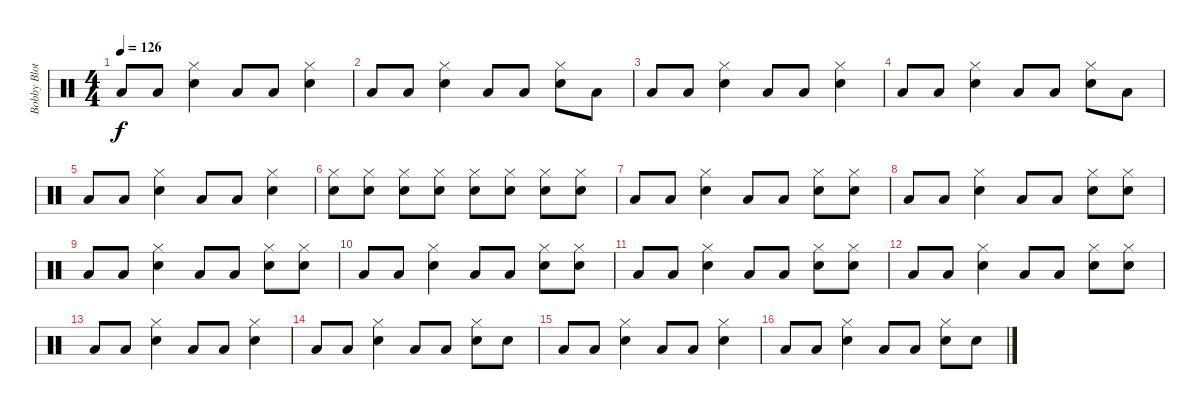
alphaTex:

\track ("Bobby Blotzer" "Bobby Blot") {instrument percussion}
\staff {score}
\articulation defaults
\ts (4 4)
\tempo 126
\clef neutral
\ks c "Low Floor Tom (hit)".8{dy f volume 13} "Low Floor Tom (hit)".8
("Hi-Hat (closed)" "Snare (hit) 2").4 "Low Floor Tom (hit)".8 "Low Floor Tom (hit)".8 ("Hi-Hat (closed)" "Snare (hit) 2").4 |
"Low Floor Tom (hit)".8 "Low Floor Tom (hit)".8 ("Hi-Hat (closed)" "Snare (hit) 2").4 "Low Floor Tom (hit)".8 "Low Floor Tom (hit)".8 ("Hi-Hat (closed)" "Snare (hit) 2").8 "Low Floor Tom (hit)".8 |
"Low Floor Tom (hit)".8{volume 13} "Low Floor Tom (hit)".8 ("Hi-Hat (closed)" "Snare (hit) 2").4 "Low Floor Tom (hit)".8 "Low Floor Tom (hit)".8 ("Hi-Hat (closed)" "Snare (hit) 2").4 |
"Low Floor Tom (hit)".8 "Low Floor Tom (hit)".8 ("Hi-Hat (closed)" "Snare (hit) 2").4 "Low Floor Tom (hit)".8 "Low Floor Tom (hit)".8 ("Hi-Hat (closed)" "Snare (hit) 2").8 "Low Floor Tom (hit)".8 |
"Low Floor Tom (hit)".8{volume 13} "Low Floor Tom (hit)".8 ("Hi-Hat (closed)" "Snare (hit) 2").4 "Low Floor Tom (hit)".8 "Low Floor Tom (hit)".8 ("Hi-Hat (closed)" "Snare (hit) 2").4 |
("Hi-Hat (closed)" "Snare (hit) 2").8 ("Hi-Hat (closed)" "Snare (hit) 2").8 ("Hi-Hat (closed)" "Snare (hit) 2").8 ("Hi-Hat (closed)" "Snare (hit) 2").8 ("Hi-Hat (closed)" "Snare (hit) 2").8 ("Hi-Hat (closed)" "Snare (hit) 2").8 ("Hi-Hat (closed)" "Snare (hit) 2").8 ("Hi-Hat (closed)" "Snare (hit) 2").8 |
"Low Floor Tom (hit)".8 "Low Floor Tom (hit)".8 ("Hi-Hat (closed)" "Snare (hit) 2").4 "Low Floor Tom (hit)".8 "Low Floor Tom (hit)".8 ("Hi-Hat (closed)" "Snare (hit) 2").8 ("Hi-Hat (closed)" "Snare (hit) 2").8 |
"Low Floor Tom (hit)".8 "Low Floor Tom (hit)".8 ("Hi-Hat (closed)" "Snare (hit) 2").4 "Low Floor Tom (hit)".8 "Low Floor Tom (hit)".8 ("Hi-Hat (closed)" "Snare (hit) 2").8 ("Hi-Hat (closed)" "Snare (hit) 2").8 |
"Low Floor Tom (hit)".8 "Low Floor Tom (hit)".8 ("Hi-Hat (closed)" "Snare (hit) 2").4 "Low Floor Tom (hit)".8 "Low Floor Tom (hit)".8 ("Hi-Hat (closed)" "Snare (hit) 2").8 ("Hi-Hat (closed)" "Snare (hit) 2").8 |
"Low Floor Tom (hit)".8 "Low Floor Tom (hit)".8 ("Hi-Hat (closed)" "Snare (hit) 2").4 "Low Floor Tom (hit)".8 "Low Floor Tom (hit)".8 ("Hi-Hat (closed)" "Snare (hit) 2").8 ("Hi-Hat (closed)" "Snare (hit) 2").8 |
"Low Floor Tom (hit)".8 "Low Floor Tom (hit)".8 ("Hi-Hat (closed)" "Snare (hit) 2").4 "Low Floor Tom (hit)".8 "Low Floor Tom (hit)".8 ("Hi-Hat (closed)" "Snare (hit) 2").8 ("Hi-Hat (closed)" "Snare (hit) 2").8 |
"Low Floor Tom (hit)".8 "Low Floor Tom (hit)".8 ("Hi-Hat (closed)" "Snare (hit) 2").4 "Low Floor Tom (hit)".8 "Low Floor Tom (hit)".8 ("Hi-Hat (closed)" "Snare (hit) 2").8 ("Hi-Hat (closed)" "Snare (hit) 2").8 |
"Low Floor Tom (hit)".8{volume 13} "Low Floor Tom (hit)".8 ("Hi-Hat (closed)" "Snare (hit) 2").4 "Low Floor Tom (hit)".8 "Low Floor Tom (hit)".8 ("Hi-Hat (closed)" "Snare (hit) 2").4 |
"Low Floor Tom (hit)".8 "Low Floor Tom (hit)".8 ("Hi-Hat (closed)" "Snare (hit) 2").4 "Low Floor Tom (hit)".8 "Low Floor Tom (hit)".8 ("Hi-Hat (closed)" "Snare (hit) 2").8 "Snare (hit) 2".8 |
"Low Floor Tom (hit)".8{volume 13} "Low Floor Tom (hit)".8 ("Hi-Hat (closed)" "Snare (hit) 2").4 "Low Floor Tom (hit)".8 "Low Floor Tom (hit)".8 ("Hi-Hat (closed)" "Snare (hit) 2").4 |
"Low Floor Tom (hit)".8 "Low Floor Tom (hit)".8 ("Hi-Hat (closed)" "Snare (hit) 2").4 "Low Floor Tom (hit)".8 "Low Floor Tom (hit)".8 ("Hi-Hat (closed)" "Snare (hit) 2").8 "Snare (hit) 2".8
